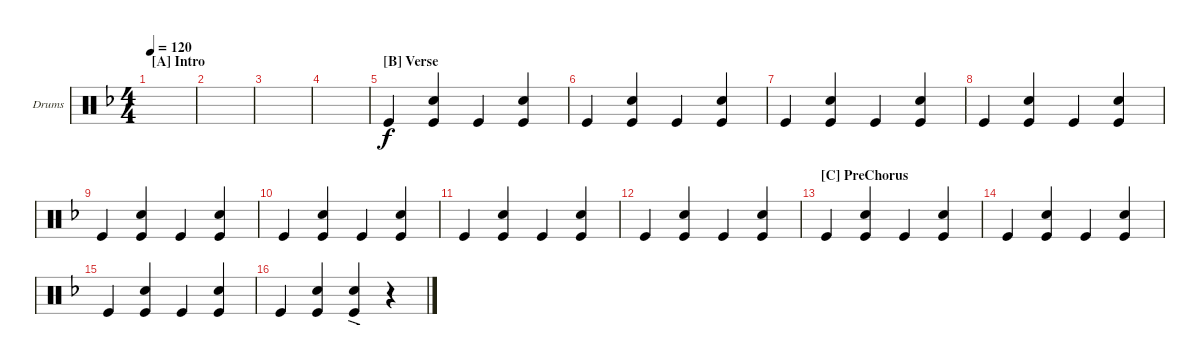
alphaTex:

\bracketExtendMode groupsimilarinstruments
\firstSystemTrackNameOrientation horizontal
\otherSystemsTrackNameOrientation horizontal
\track ("Drumkit" "Drums") {instrument percussion}
\staff {score}
\articulation defaults
\ts (4 4)
\section ("A" "Intro")
\tempo 120
\clef neutral
\scale
0.4
\ks f
|
\scale
0.2 |
\scale
0.2 |
\scale
0.2 |
\section ("B" "Verse")
\scale
0.25 "Kick (hit)".4 ("Kick (hit)" "Snare (hit) 2").4 "Kick (hit)".4 ("Kick (hit)" "Snare (hit) 2").4 |
\scale
0.25 "Kick (hit)".4 ("Kick (hit)" "Snare (hit) 2").4 "Kick (hit)".4 ("Kick (hit)" "Snare (hit) 2").4 |
\scale
0.25 "Kick (hit)".4 ("Kick (hit)" "Snare (hit) 2").4 "Kick (hit)".4 ("Kick (hit)" "Snare (hit) 2").4 |
\scale
0.25 "Kick (hit)".4 ("Kick (hit)" "Snare (hit) 2").4 "Kick (hit)".4 ("Kick (hit)" "Snare (hit) 2").4 |
\scale
0.25 "Kick (hit)".4 ("Kick (hit)" "Snare (hit) 2").4 "Kick (hit)".4 ("Kick (hit)" "Snare (hit) 2").4 |
\scale
0.25 "Kick (hit)".4 ("Kick (hit)" "Snare (hit) 2").4 "Kick (hit)".4 ("Kick (hit)" "Snare (hit) 2").4 |
\scale
0.25 "Kick (hit)".4 ("Kick (hit)" "Snare (hit) 2").4 "Kick (hit)".4 ("Kick (hit)" "Snare (hit) 2").4 |
\scale
0.25 "Kick (hit)".4 ("Kick (hit)" "Snare (hit) 2").4 "Kick (hit)".4 ("Kick (hit)" "Snare (hit) 2").4 |
\section ("C" "PreChorus")
\scale
0.25 "Kick (hit)".4 ("Kick (hit)" "Snare (hit) 2").4 "Kick (hit)".4 ("Kick (hit)" "Snare (hit) 2").4 |
\scale
0.25 "Kick (hit)".4 ("Kick (hit)" "Snare (hit) 2").4 "Kick (hit)".4 ("Kick (hit)" "Snare (hit) 2").4 |
\scale
0.25 "Kick (hit)".4 ("Kick (hit)" "Snare (hit) 2").4 "Kick (hit)".4 ("Kick (hit)" "Snare (hit) 2").4 |
\scale
0.25 "Kick (hit)".4 ("Kick (hit)" "Snare (hit) 2").4 ("Kick (hit)" "Snare (hit) 2"{ac}).4 r.4
